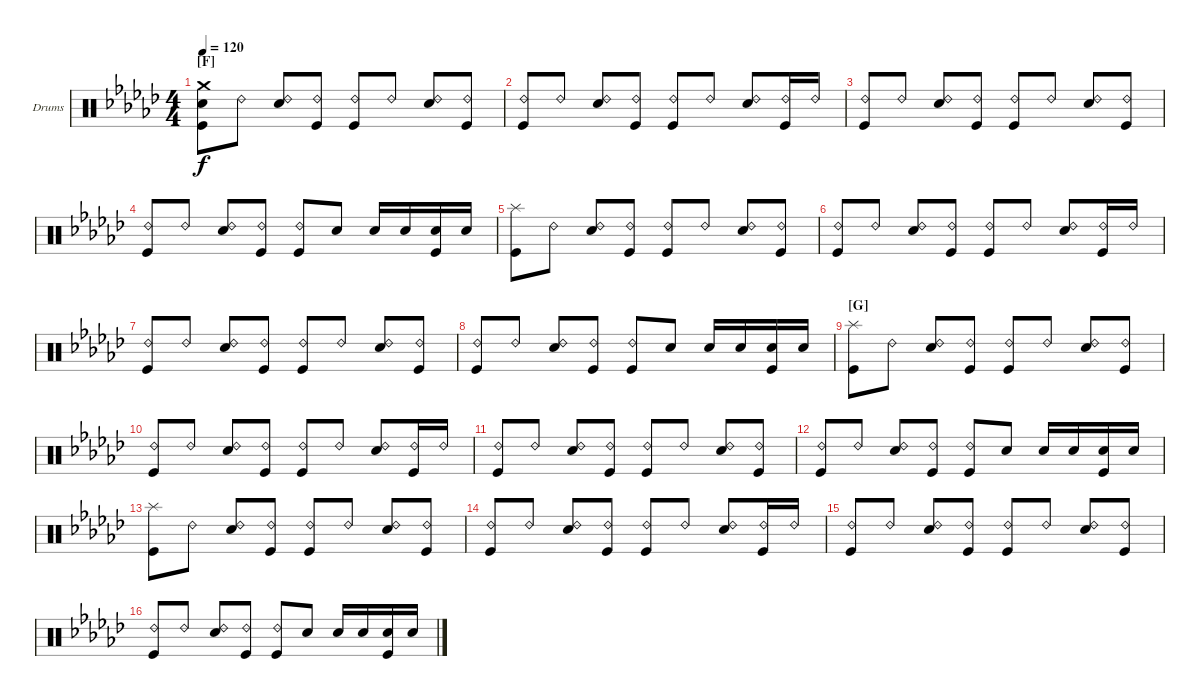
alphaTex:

\defaultSystemsLayout 4
\bracketExtendMode groupsimilarinstruments
\firstSystemTrackNameOrientation horizontal
\otherSystemsTrackNameOrientation horizontal
\track ("Drumkit" "Drums") {instrument percussion}
\staff {score}
\articulation defaults
\ts (4 4)
\section ("F" "")
\tempo 120
\clef neutral
\ks ebminor
("Kick (hit)" "Snare (hit) 2" "Crash medium (hit)").8{dy f} "Ride (bell) 2".8 ("Ride (bell) 2" "Snare (hit) 2").8 ("Kick (hit)" "Ride (bell) 2").8 ("Ride (bell) 2" "Kick (hit)").8 "Ride (bell) 2".8 ("Ride (bell) 2" "Snare (hit) 2").8 ("Ride (bell) 2" "Kick (hit)").8 |
("Kick (hit)" "Ride (bell) 2").8 "Ride (bell) 2".8 ("Ride (bell) 2" "Snare (hit) 2").8 ("Kick (hit)" "Ride (bell) 2").8 ("Ride (bell) 2" "Kick (hit)").8 "Ride (bell) 2".8 ("Ride (bell) 2" "Snare (hit) 2").8 ("Ride (bell) 2" "Kick (hit)").16 "Ride (bell) 2".16 |
("Kick (hit)" "Ride (bell) 2").8 "Ride (bell) 2".8 ("Ride (bell) 2" "Snare (hit) 2").8 ("Kick (hit)" "Ride (bell) 2").8 ("Ride (bell) 2" "Kick (hit)").8 "Ride (bell) 2".8 ("Ride (bell) 2" "Snare (hit) 2").8 ("Ride (bell) 2" "Kick (hit)").8 |
("Kick (hit)" "Ride (bell) 2").8 "Ride (bell) 2".8 ("Ride (bell) 2" "Snare (hit) 2").8 ("Ride (bell) 2" "Kick (hit)").8 ("Ride (bell) 2" "Kick (hit)").8 "Snare (hit) 2".8 "Snare (hit) 2".16 "Snare (hit) 2".16 ("Snare (hit) 2" "Kick (hit)").16 "Snare (hit) 2".16 |
("Kick (hit)" "Splash (hit)").8 "Ride (bell) 2".8 ("Ride (bell) 2" "Snare (hit) 2").8 ("Kick (hit)" "Ride (bell) 2").8 ("Ride (bell) 2" "Kick (hit)").8 "Ride (bell) 2".8 ("Ride (bell) 2" "Snare (hit) 2").8 ("Ride (bell) 2" "Kick (hit)").8 |
("Kick (hit)" "Ride (bell) 2").8 "Ride (bell) 2".8 ("Ride (bell) 2" "Snare (hit) 2").8 ("Kick (hit)" "Ride (bell) 2").8 ("Ride (bell) 2" "Kick (hit)").8 "Ride (bell) 2".8 ("Ride (bell) 2" "Snare (hit) 2").8 ("Ride (bell) 2" "Kick (hit)").16 "Ride (bell) 2".16 |
("Kick (hit)" "Ride (bell) 2").8 "Ride (bell) 2".8 ("Ride (bell) 2" "Snare (hit) 2").8 ("Kick (hit)" "Ride (bell) 2").8 ("Ride (bell) 2" "Kick (hit)").8 "Ride (bell) 2".8 ("Ride (bell) 2" "Snare (hit) 2").8 ("Ride (bell) 2" "Kick (hit)").8 |
("Kick (hit)" "Ride (bell) 2").8 "Ride (bell) 2".8 ("Ride (bell) 2" "Snare (hit) 2").8 ("Ride (bell) 2" "Kick (hit)").8 ("Ride (bell) 2" "Kick (hit)").8 "Snare (hit) 2".8 "Snare (hit) 2".16 "Snare (hit) 2".16 ("Snare (hit) 2" "Kick (hit)").16 "Snare (hit) 2".16 |
\section ("G" "")
("Kick (hit)" "Splash (hit)").8 "Ride (bell) 2".8 ("Ride (bell) 2" "Snare (hit) 2").8 ("Kick (hit)" "Ride (bell) 2").8 ("Ride (bell) 2" "Kick (hit)").8 "Ride (bell) 2".8 ("Ride (bell) 2" "Snare (hit) 2").8 ("Ride (bell) 2" "Kick (hit)").8 |
("Kick (hit)" "Ride (bell) 2").8 "Ride (bell) 2".8 ("Ride (bell) 2" "Snare (hit) 2").8 ("Kick (hit)" "Ride (bell) 2").8 ("Ride (bell) 2" "Kick (hit)").8 "Ride (bell) 2".8 ("Ride (bell) 2" "Snare (hit) 2").8 ("Ride (bell) 2" "Kick (hit)").16 "Ride (bell) 2".16 |
("Kick (hit)" "Ride (bell) 2").8 "Ride (bell) 2".8 ("Ride (bell) 2" "Snare (hit) 2").8 ("Kick (hit)" "Ride (bell) 2").8 ("Ride (bell) 2" "Kick (hit)").8 "Ride (bell) 2".8 ("Ride (bell) 2" "Snare (hit) 2").8 ("Ride (bell) 2" "Kick (hit)").8 |
("Kick (hit)" "Ride (bell) 2").8 "Ride (bell) 2".8 ("Ride (bell) 2" "Snare (hit) 2").8 ("Ride (bell) 2" "Kick (hit)").8 ("Ride (bell) 2" "Kick (hit)").8 "Snare (hit) 2".8 "Snare (hit) 2".16 "Snare (hit) 2".16 ("Snare (hit) 2" "Kick (hit)").16 "Snare (hit) 2".16 |
("Kick (hit)" "Splash (hit)").8 "Ride (bell) 2".8 ("Ride (bell) 2" "Snare (hit) 2").8 ("Kick (hit)" "Ride (bell) 2").8 ("Ride (bell) 2" "Kick (hit)").8 "Ride (bell) 2".8 ("Ride (bell) 2" "Snare (hit) 2").8 ("Ride (bell) 2" "Kick (hit)").8 |
("Kick (hit)" "Ride (bell) 2").8 "Ride (bell) 2".8 ("Ride (bell) 2" "Snare (hit) 2").8 ("Kick (hit)" "Ride (bell) 2").8 ("Ride (bell) 2" "Kick (hit)").8 "Ride (bell) 2".8 ("Ride (bell) 2" "Snare (hit) 2").8 ("Ride (bell) 2" "Kick (hit)").16 "Ride (bell) 2".16 |
("Kick (hit)" "Ride (bell) 2").8 "Ride (bell) 2".8 ("Ride (bell) 2" "Snare (hit) 2").8 ("Kick (hit)" "Ride (bell) 2").8 ("Ride (bell) 2" "Kick (hit)").8 "Ride (bell) 2".8 ("Ride (bell) 2" "Snare (hit) 2").8 ("Ride (bell) 2" "Kick (hit)").8 |
("Kick (hit)" "Ride (bell) 2").8 "Ride (bell) 2".8 ("Ride (bell) 2" "Snare (hit) 2").8 ("Ride (bell) 2" "Kick (hit)").8 ("Ride (bell) 2" "Kick (hit)").8 "Snare (hit) 2".8 "Snare (hit) 2".16 "Snare (hit) 2".16 ("Snare (hit) 2" "Kick (hit)").16 "Snare (hit) 2".16
